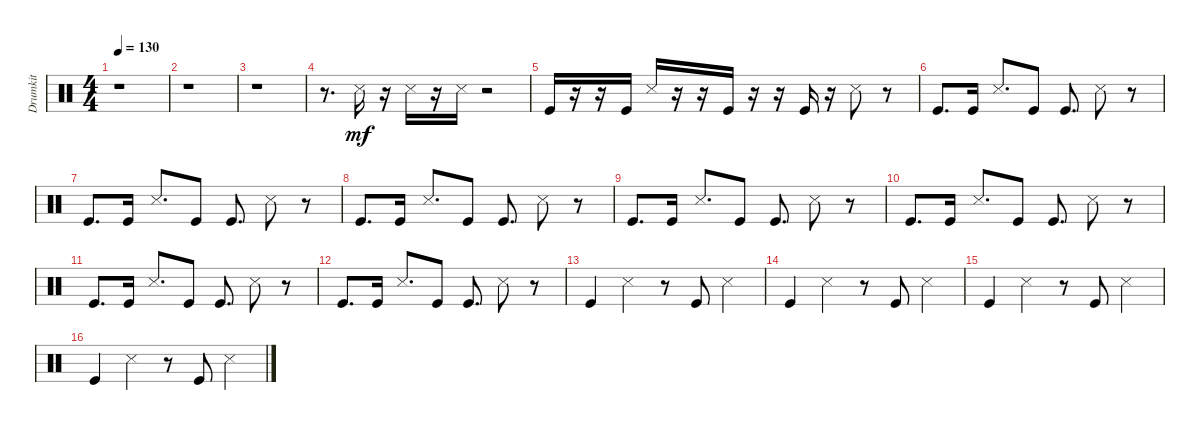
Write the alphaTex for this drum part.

\track ("Drumkit" "Drumkit") {instrument percussion}
\staff {score}
\articulation defaults
\ts (4 4)
\tempo 130
\clef neutral
\ks c
r.1{dy mf} |
r.1 |
r.1 |
r.8{d} "Snare (side stick) 3".16 r.16 "Snare (side stick) 3".16 r.16 "Snare (side stick) 3".16 r.2 |
"Kick (hit)".16 r.16 r.16 "Kick (hit)".16 "Snare (side stick) 3".16 r.16 r.16 "Kick (hit)".16 r.16 r.16 "Kick (hit)".16 r.16 "Snare (side stick) 3".8 r.8 |
"Kick (hit)".8{d} "Kick (hit)".16 "Snare (side stick) 3".8{d} "Kick (hit)".8 "Kick (hit)".8{d} "Snare (side stick) 3".8 r.8 |
"Kick (hit)".8{d} "Kick (hit)".16 "Snare (side stick) 3".8{d} "Kick (hit)".8 "Kick (hit)".8{d} "Snare (side stick) 3".8 r.8 |
"Kick (hit)".8{d} "Kick (hit)".16 "Snare (side stick) 3".8{d} "Kick (hit)".8 "Kick (hit)".8{d} "Snare (side stick) 3".8 r.8 |
"Kick (hit)".8{d} "Kick (hit)".16 "Snare (side stick) 3".8{d} "Kick (hit)".8 "Kick (hit)".8{d} "Snare (side stick) 3".8 r.8 |
"Kick (hit)".8{d} "Kick (hit)".16 "Snare (side stick) 3".8{d} "Kick (hit)".8 "Kick (hit)".8{d} "Snare (side stick) 3".8 r.8 |
"Kick (hit)".8{d} "Kick (hit)".16 "Snare (side stick) 3".8{d} "Kick (hit)".8 "Kick (hit)".8{d} "Snare (side stick) 3".8 r.8 |
"Kick (hit)".8{d} "Kick (hit)".16 "Snare (side stick) 3".8{d} "Kick (hit)".8 "Kick (hit)".8{d} "Snare (side stick) 3".8 r.8 |
"Kick (hit)".4 "Snare (side stick) 3".4 r.8 "Kick (hit)".8 "Snare (side stick) 3".4 |
"Kick (hit)".4 "Snare (side stick) 3".4 r.8 "Kick (hit)".8 "Snare (side stick) 3".4 |
"Kick (hit)".4 "Snare (side stick) 3".4 r.8 "Kick (hit)".8 "Snare (side stick) 3".4 |
"Kick (hit)".4 "Snare (side stick) 3".4 r.8 "Kick (hit)".8 "Snare (side stick) 3".4
